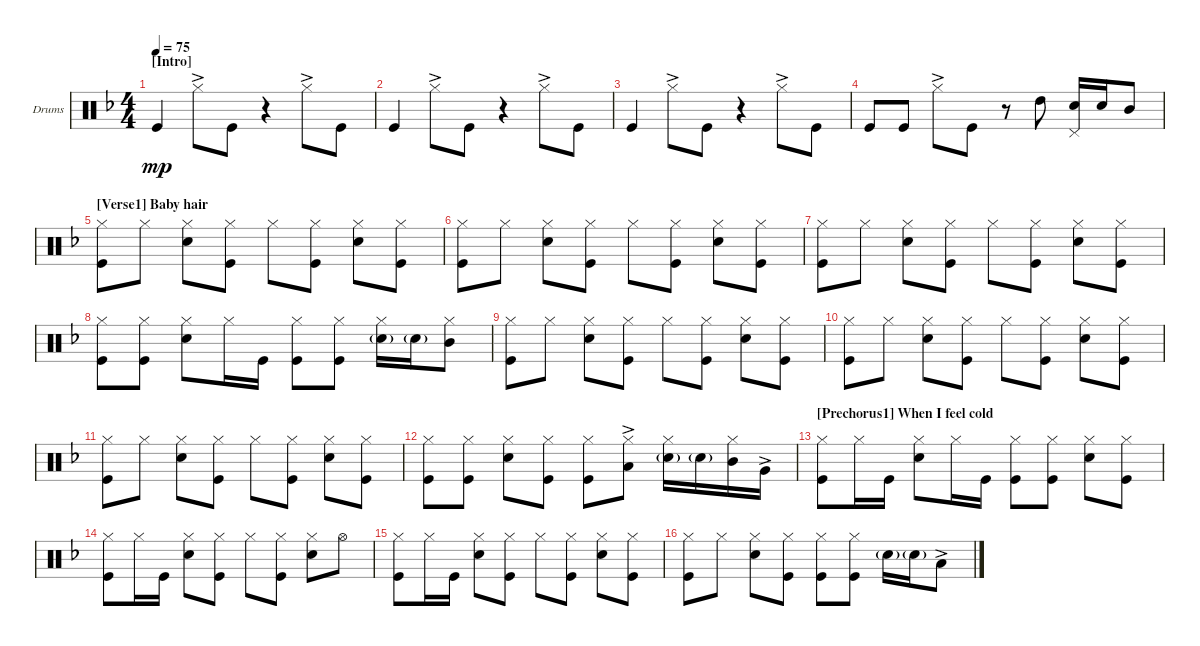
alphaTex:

\defaultSystemsLayout 4
\bracketExtendMode groupsimilarinstruments
\firstSystemTrackNameOrientation horizontal
\otherSystemsTrackNameOrientation horizontal
\track ("Drumkit" "Drums") {instrument percussion}
\staff {score}
\articulation defaults
\ts (4 4)
\section ("" "[Intro]")
\tempo 75
\clef neutral
\ks dminor "Kick (hit)".4{dy mp} "Hi-Hat (closed)"{ac}.8 "Kick (hit)".8
r.4 "Hi-Hat (closed)"{ac}.8 "Kick (hit)".8 |
"Kick (hit)".4 "Hi-Hat (closed)"{ac}.8 "Kick (hit)".8 r.4 "Hi-Hat (closed)"{ac}.8 "Kick (hit)".8 |
"Kick (hit)".4 "Hi-Hat (closed)"{ac}.8 "Kick (hit)".8 r.4 "Hi-Hat (closed)"{ac}.8 "Kick (hit)".8 |
"Kick (hit)".8 "Kick (hit)".8 "Hi-Hat (closed)"{ac}.8 "Kick (hit)".8 r.8 "High Tom (hit)".8 ("Snare (hit) 2" "Pedal Hi-Hat (hit)").16 "Snare (hit) 2".16 "Mid Tom (hit)".8 |
\section ("" "[Verse1] Baby hair")
("Hi-Hat (closed)" "Kick (hit)").8 "Hi-Hat (closed)".8 ("Hi-Hat (closed)" "Snare (hit) 2").8 ("Hi-Hat (closed)" "Kick (hit)").8 "Hi-Hat (closed)".8 ("Hi-Hat (closed)" "Kick (hit)").8 ("Hi-Hat (closed)" "Snare (hit) 2").8 ("Hi-Hat (closed)" "Kick (hit)").8 |
("Hi-Hat (closed)" "Kick (hit)").8 "Hi-Hat (closed)".8 ("Hi-Hat (closed)" "Snare (hit) 2").8 ("Hi-Hat (closed)" "Kick (hit)").8 "Hi-Hat (closed)".8 ("Hi-Hat (closed)" "Kick (hit)").8 ("Hi-Hat (closed)" "Snare (hit) 2").8 ("Hi-Hat (closed)" "Kick (hit)").8 |
("Hi-Hat (closed)" "Kick (hit)").8 "Hi-Hat (closed)".8 ("Hi-Hat (closed)" "Snare (hit) 2").8 ("Hi-Hat (closed)" "Kick (hit)").8 "Hi-Hat (closed)".8 ("Hi-Hat (closed)" "Kick (hit)").8 ("Hi-Hat (closed)" "Snare (hit) 2").8 ("Hi-Hat (closed)" "Kick (hit)").8 |
("Hi-Hat (closed)" "Kick (hit)").8 ("Hi-Hat (closed)" "Kick (hit)").8 ("Hi-Hat (closed)" "Snare (hit) 2").8 "Hi-Hat (closed)".16 "Kick (hit)".16 ("Hi-Hat (closed)" "Kick (hit)").8 ("Hi-Hat (closed)" "Kick (hit)").8 ("Hi-Hat (closed)" "Snare (hit) 2"{g}).16 "Snare (hit) 2"{g}.16 ("Hi-Hat (closed)" "Mid Tom (hit)").8 |
("Hi-Hat (closed)" "Kick (hit)").8 "Hi-Hat (closed)".8 ("Hi-Hat (closed)" "Snare (hit) 2").8 ("Hi-Hat (closed)" "Kick (hit)").8 "Hi-Hat (closed)".8 ("Hi-Hat (closed)" "Kick (hit)").8 ("Hi-Hat (closed)" "Snare (hit) 2").8 ("Hi-Hat (closed)" "Kick (hit)").8 |
("Hi-Hat (closed)" "Kick (hit)").8 "Hi-Hat (closed)".8 ("Hi-Hat (closed)" "Snare (hit) 2").8 ("Hi-Hat (closed)" "Kick (hit)").8 "Hi-Hat (closed)".8 ("Hi-Hat (closed)" "Kick (hit)").8 ("Hi-Hat (closed)" "Snare (hit) 2").8 ("Hi-Hat (closed)" "Kick (hit)").8 |
("Hi-Hat (closed)" "Kick (hit)").8 "Hi-Hat (closed)".8 ("Hi-Hat (closed)" "Snare (hit) 2").8 ("Hi-Hat (closed)" "Kick (hit)").8 "Hi-Hat (closed)".8 ("Hi-Hat (closed)" "Kick (hit)").8 ("Hi-Hat (closed)" "Snare (hit) 2").8 ("Hi-Hat (closed)" "Kick (hit)").8 |
("Hi-Hat (closed)" "Kick (hit)").8 ("Hi-Hat (closed)" "Kick (hit)").8 ("Hi-Hat (closed)" "Snare (hit) 2").8 ("Hi-Hat (closed)" "Kick (hit)").8 ("Hi-Hat (closed)" "Kick (hit)").8 ("Hi-Hat (closed)" "Low Tom (hit)"{ac}).8 ("Hi-Hat (closed)" "Snare (hit) 2"{g}).16 "Snare (hit) 2"{g}.16 ("Hi-Hat (closed)" "Mid Tom (hit)").16 "Very Low Tom (hit)"{ac}.16 |
\section ("" "[Prechorus1] When I feel cold")
("Hi-Hat (closed)" "Kick (hit)").8 "Hi-Hat (closed)".16 "Kick (hit)".16 ("Hi-Hat (closed)" "Snare (hit) 2").8 "Hi-Hat (closed)".16 "Kick (hit)".16 ("Hi-Hat (closed)" "Kick (hit)").8 ("Hi-Hat (closed)" "Kick (hit)").8 ("Hi-Hat (closed)" "Snare (hit) 2").8 ("Hi-Hat (closed)" "Kick (hit)").8 |
("Hi-Hat (closed)" "Kick (hit)").8 "Hi-Hat (closed)".16 "Kick (hit)".16 ("Hi-Hat (closed)" "Snare (hit) 2").8 ("Hi-Hat (closed)" "Kick (hit)").8 "Hi-Hat (closed)".8 ("Hi-Hat (closed)" "Kick (hit)").8 ("Hi-Hat (closed)" "Snare (hit) 2").8 "Hi-Hat (open)".8 |
("Hi-Hat (closed)" "Kick (hit)").8 "Hi-Hat (closed)".16 "Kick (hit)".16 ("Hi-Hat (closed)" "Snare (hit) 2").8 ("Hi-Hat (closed)" "Kick (hit)").8 "Hi-Hat (closed)".8 ("Hi-Hat (closed)" "Kick (hit)").8 ("Hi-Hat (closed)" "Snare (hit) 2").8 ("Hi-Hat (closed)" "Kick (hit)").8 |
("Hi-Hat (closed)" "Kick (hit)").8 "Hi-Hat (closed)".8 ("Hi-Hat (closed)" "Snare (hit) 2").8 ("Hi-Hat (closed)" "Kick (hit)").8 ("Hi-Hat (closed)" "Kick (hit)").8 ("Hi-Hat (closed)" "Kick (hit)").8 "Snare (hit) 2"{g}.16 "Snare (hit) 2"{g}.16 "Low Tom (hit)"{ac}.8
